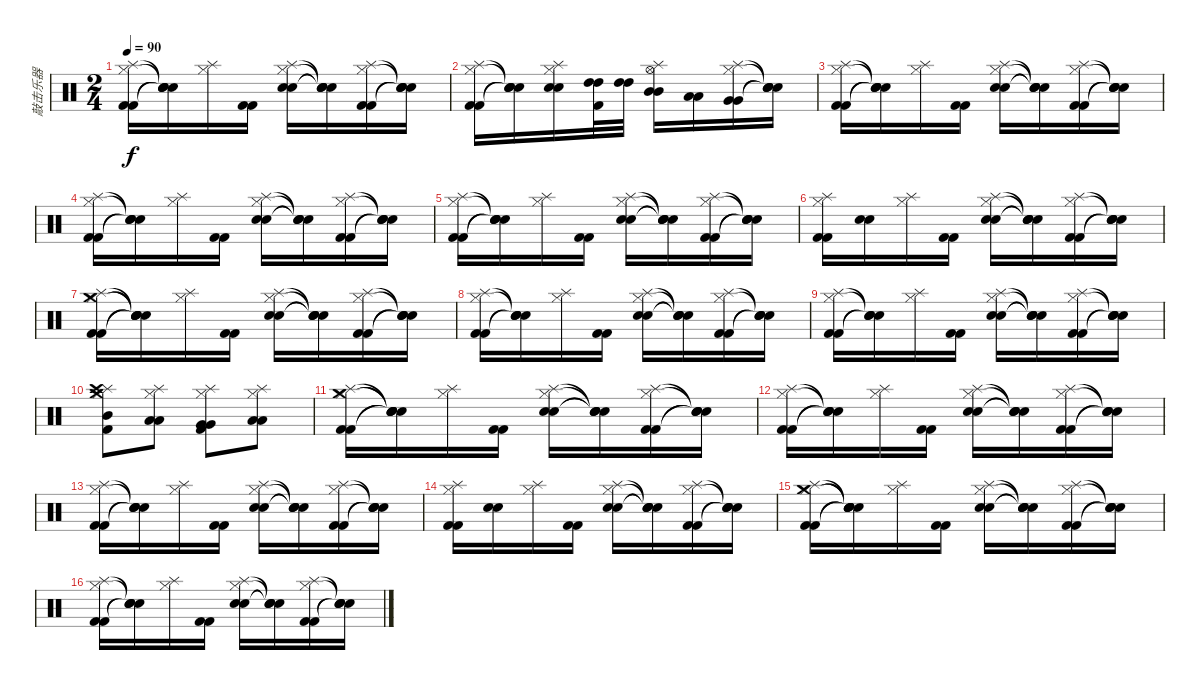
\track ("敲击乐器" "敲击乐器") {instrument percussion}
\staff {score}
\articulation defaults
\ts (2 4)
\tempo 90
\clef neutral
\ks c
("Hi-Hat (closed)" "Splash (hit)" "Kick (hit) 2" "Kick (hit) 2").16{dy f} ("Snare (hit)"{t} "Snare (hit)"{t} "Snare (hit)"{t} "Snare (hit)"{t}).16 ("Hi-Hat (closed)" "Splash (hit)").16 ("Kick (hit) 2" "Kick (hit) 2").16 ("Hi-Hat (closed)" "Splash (hit)" "Electric Snare (hit)" "Electric Snare (hit)").16 ("Snare (hit)"{t} "Snare (hit)"{t} "Snare (hit)"{t} "Snare (hit)"{t}).16 ("Hi-Hat (closed)" "Splash (hit)" "Kick (hit) 2" "Kick (hit) 2").16 ("Snare (hit)"{t} "Snare (hit)"{t} "Snare (hit)"{t} "Snare (hit)"{t}).16 |
("Hi-Hat (closed)" "Splash (hit)" "Kick (hit) 2" "Kick (hit) 2").16 ("Snare (hit)"{t} "Snare (hit)"{t} "Snare (hit)"{t} "Snare (hit)"{t}).16 ("Hi-Hat (closed)" "Splash (hit)" "Electric Snare (hit)" "Electric Snare (hit)").16 ("High Tom (hit)" "High Tom (hit)" "Kick (hit) 2").32 ("High Tom (hit)" "High Tom (hit)").32 ("Hi-Hat (open)" "Splash (hit)" "Mid Tom (hit)" "Mid Tom (hit)").16 ("Low Tom (hit)" "Low Tom (hit)").16 ("Hi-Hat (closed)" "Splash (hit)" "Very Low Tom (hit)" "Very Low Tom (hit)").16 ("Snare (hit)"{t} "Snare (hit)"{t} "Snare (hit)"{t} "Snare (hit)"{t}).16 |
("Hi-Hat (closed)" "Splash (hit)" "Kick (hit) 2" "Kick (hit) 2").16 ("Snare (hit)"{t} "Snare (hit)"{t} "Snare (hit)"{t} "Snare (hit)"{t}).16 ("Hi-Hat (closed)" "Splash (hit)").16 ("Kick (hit) 2" "Kick (hit) 2").16 ("Hi-Hat (closed)" "Splash (hit)" "Electric Snare (hit)" "Electric Snare (hit)").16 ("Snare (hit)"{t} "Snare (hit)"{t} "Snare (hit)"{t} "Snare (hit)"{t}).16 ("Hi-Hat (closed)" "Splash (hit)" "Kick (hit) 2" "Kick (hit) 2").16 ("Snare (hit)"{t} "Snare (hit)"{t} "Snare (hit)"{t} "Snare (hit)"{t}).16 |
("Hi-Hat (closed)" "Splash (hit)" "Kick (hit) 2" "Kick (hit) 2").16 ("Snare (hit)"{t} "Snare (hit)"{t} "Snare (hit)"{t} "Snare (hit)"{t}).16 ("Hi-Hat (closed)" "Splash (hit)").16 ("Kick (hit) 2" "Kick (hit) 2").16 ("Hi-Hat (closed)" "Splash (hit)" "Electric Snare (hit)" "Electric Snare (hit)").16 ("Snare (hit)"{t} "Snare (hit)"{t} "Snare (hit)"{t} "Snare (hit)"{t}).16 ("Hi-Hat (closed)" "Splash (hit)" "Kick (hit) 2" "Kick (hit) 2").16 ("Snare (hit)"{t} "Snare (hit)"{t} "Snare (hit)"{t} "Snare (hit)"{t}).16 |
("Hi-Hat (closed)" "Splash (hit)" "Kick (hit) 2" "Kick (hit) 2").16 ("Snare (hit)"{t} "Snare (hit)"{t} "Snare (hit)"{t} "Snare (hit)"{t}).16 ("Hi-Hat (closed)" "Splash (hit)").16 ("Kick (hit) 2" "Kick (hit) 2").16 ("Hi-Hat (closed)" "Splash (hit)" "Electric Snare (hit)" "Electric Snare (hit)").16 ("Snare (hit)"{t} "Snare (hit)"{t} "Snare (hit)"{t} "Snare (hit)"{t}).16 ("Hi-Hat (closed)" "Splash (hit)" "Kick (hit) 2" "Kick (hit) 2").16 ("Snare (hit)"{t} "Snare (hit)"{t} "Snare (hit)"{t} "Snare (hit)"{t}).16 |
("Hi-Hat (closed)" "Splash (hit)" "Kick (hit) 2" "Kick (hit) 2").16 ("Electric Snare (hit)" "Electric Snare (hit)").16 ("Hi-Hat (closed)" "Splash (hit)").16 ("Kick (hit) 2" "Kick (hit) 2").16 ("Hi-Hat (closed)" "Splash (hit)" "Electric Snare (hit)" "Electric Snare (hit)").16 ("Snare (hit)"{t} "Snare (hit)"{t} "Snare (hit)"{t} "Snare (hit)"{t}).16 ("Hi-Hat (closed)" "Splash (hit)" "Kick (hit) 2" "Kick (hit) 2").16 ("Snare (hit)"{t} "Snare (hit)"{t} "Snare (hit)"{t} "Snare (hit)"{t}).16 |
("Hi-Hat (closed)" "Splash (hit)" "Crash medium (hit)" "Kick (hit) 2" "Kick (hit) 2").16 ("Snare (hit)"{t} "Snare (hit)"{t} "Snare (hit)"{t} "Snare (hit)"{t} "Snare (hit)"{t}).16 ("Hi-Hat (closed)" "Splash (hit)").16 ("Kick (hit) 2" "Kick (hit) 2").16 ("Hi-Hat (closed)" "Splash (hit)" "Electric Snare (hit)" "Electric Snare (hit)").16 ("Snare (hit)"{t} "Snare (hit)"{t} "Snare (hit)"{t} "Snare (hit)"{t}).16 ("Hi-Hat (closed)" "Splash (hit)" "Kick (hit) 2" "Kick (hit) 2").16 ("Snare (hit)"{t} "Snare (hit)"{t} "Snare (hit)"{t} "Snare (hit)"{t}).16 |
("Hi-Hat (closed)" "Splash (hit)" "Kick (hit) 2" "Kick (hit) 2").16 ("Snare (hit)"{t} "Snare (hit)"{t} "Snare (hit)"{t} "Snare (hit)"{t}).16 ("Hi-Hat (closed)" "Splash (hit)").16 ("Kick (hit) 2" "Kick (hit) 2").16 ("Hi-Hat (closed)" "Splash (hit)" "Electric Snare (hit)" "Electric Snare (hit)").16 ("Snare (hit)"{t} "Snare (hit)"{t} "Snare (hit)"{t} "Snare (hit)"{t}).16 ("Hi-Hat (closed)" "Splash (hit)" "Kick (hit) 2" "Kick (hit) 2").16 ("Snare (hit)"{t} "Snare (hit)"{t} "Snare (hit)"{t} "Snare (hit)"{t}).16 |
("Hi-Hat (closed)" "Splash (hit)" "Kick (hit) 2" "Kick (hit) 2").16 ("Snare (hit)"{t} "Snare (hit)"{t} "Snare (hit)"{t} "Snare (hit)"{t}).16 ("Hi-Hat (closed)" "Splash (hit)").16 ("Kick (hit) 2" "Kick (hit) 2").16 ("Hi-Hat (closed)" "Splash (hit)" "Electric Snare (hit)" "Electric Snare (hit)").16 ("Snare (hit)"{t} "Snare (hit)"{t} "Snare (hit)"{t} "Snare (hit)"{t}).16 ("Hi-Hat (closed)" "Splash (hit)" "Kick (hit) 2" "Kick (hit) 2").16 ("Snare (hit)"{t} "Snare (hit)"{t} "Snare (hit)"{t} "Snare (hit)"{t}).16 |
("Hi-Hat (closed)" "Splash (hit)" "Crash medium (hit)" "Crash high (hit)" "Mid Tom (hit)" "Kick (hit) 2").8 ("Hi-Hat (closed)" "Splash (hit)" "Low Tom (hit)" "Low Tom (hit)").8 ("Hi-Hat (closed)" "Splash (hit)" "Very Low Tom (hit)" "Very Low Tom (hit)" "Kick (hit) 2").8 ("Hi-Hat (closed)" "Splash (hit)" "Low Floor Tom (hit)" "Low Floor Tom (hit)").8 |
("Hi-Hat (closed)" "Splash (hit)" "Crash medium (hit)" "Kick (hit) 2" "Kick (hit) 2").16 ("Snare (hit)"{t} "Snare (hit)"{t} "Snare (hit)"{t} "Snare (hit)"{t} "Snare (hit)"{t}).16 ("Hi-Hat (closed)" "Splash (hit)").16 ("Kick (hit) 2" "Kick (hit) 2").16 ("Hi-Hat (closed)" "Splash (hit)" "Electric Snare (hit)" "Electric Snare (hit)").16 ("Snare (hit)"{t} "Snare (hit)"{t} "Snare (hit)"{t} "Snare (hit)"{t}).16 ("Hi-Hat (closed)" "Splash (hit)" "Kick (hit) 2" "Kick (hit) 2").16 ("Snare (hit)"{t} "Snare (hit)"{t} "Snare (hit)"{t} "Snare (hit)"{t}).16 |
("Hi-Hat (closed)" "Splash (hit)" "Kick (hit) 2" "Kick (hit) 2").16 ("Snare (hit)"{t} "Snare (hit)"{t} "Snare (hit)"{t} "Snare (hit)"{t}).16 ("Hi-Hat (closed)" "Splash (hit)").16 ("Kick (hit) 2" "Kick (hit) 2").16 ("Hi-Hat (closed)" "Splash (hit)" "Electric Snare (hit)" "Electric Snare (hit)").16 ("Snare (hit)"{t} "Snare (hit)"{t} "Snare (hit)"{t} "Snare (hit)"{t}).16 ("Hi-Hat (closed)" "Splash (hit)" "Kick (hit) 2" "Kick (hit) 2").16 ("Snare (hit)"{t} "Snare (hit)"{t} "Snare (hit)"{t} "Snare (hit)"{t}).16 |
("Hi-Hat (closed)" "Splash (hit)" "Kick (hit) 2" "Kick (hit) 2").16 ("Snare (hit)"{t} "Snare (hit)"{t} "Snare (hit)"{t} "Snare (hit)"{t}).16 ("Hi-Hat (closed)" "Splash (hit)").16 ("Kick (hit) 2" "Kick (hit) 2").16 ("Hi-Hat (closed)" "Splash (hit)" "Electric Snare (hit)" "Electric Snare (hit)").16 ("Snare (hit)"{t} "Snare (hit)"{t} "Snare (hit)"{t} "Snare (hit)"{t}).16 ("Hi-Hat (closed)" "Splash (hit)" "Kick (hit) 2" "Kick (hit) 2").16 ("Snare (hit)"{t} "Snare (hit)"{t} "Snare (hit)"{t} "Snare (hit)"{t}).16 |
("Hi-Hat (closed)" "Splash (hit)" "Kick (hit) 2" "Kick (hit) 2").16 ("Electric Snare (hit)" "Electric Snare (hit)").16 ("Hi-Hat (closed)" "Splash (hit)").16 ("Kick (hit) 2" "Kick (hit) 2").16 ("Hi-Hat (closed)" "Splash (hit)" "Electric Snare (hit)" "Electric Snare (hit)").16 ("Snare (hit)"{t} "Snare (hit)"{t} "Snare (hit)"{t} "Snare (hit)"{t}).16 ("Hi-Hat (closed)" "Splash (hit)" "Kick (hit) 2" "Kick (hit) 2").16 ("Snare (hit)"{t} "Snare (hit)"{t} "Snare (hit)"{t} "Snare (hit)"{t}).16 |
("Hi-Hat (closed)" "Splash (hit)" "Crash medium (hit)" "Kick (hit) 2" "Kick (hit) 2").16 ("Snare (hit)"{t} "Snare (hit)"{t} "Snare (hit)"{t} "Snare (hit)"{t} "Snare (hit)"{t}).16 ("Hi-Hat (closed)" "Splash (hit)").16 ("Kick (hit) 2" "Kick (hit) 2").16 ("Hi-Hat (closed)" "Splash (hit)" "Electric Snare (hit)" "Electric Snare (hit)").16 ("Snare (hit)"{t} "Snare (hit)"{t} "Snare (hit)"{t} "Snare (hit)"{t}).16 ("Hi-Hat (closed)" "Splash (hit)" "Kick (hit) 2" "Kick (hit) 2").16 ("Snare (hit)"{t} "Snare (hit)"{t} "Snare (hit)"{t} "Snare (hit)"{t}).16 |
("Hi-Hat (closed)" "Splash (hit)" "Kick (hit) 2" "Kick (hit) 2").16 ("Snare (hit)"{t} "Snare (hit)"{t} "Snare (hit)"{t} "Snare (hit)"{t}).16 ("Hi-Hat (closed)" "Splash (hit)").16 ("Kick (hit) 2" "Kick (hit) 2").16 ("Hi-Hat (closed)" "Splash (hit)" "Electric Snare (hit)" "Electric Snare (hit)").16 ("Snare (hit)"{t} "Snare (hit)"{t} "Snare (hit)"{t} "Snare (hit)"{t}).16 ("Hi-Hat (closed)" "Splash (hit)" "Kick (hit) 2" "Kick (hit) 2").16 ("Snare (hit)"{t} "Snare (hit)"{t} "Snare (hit)"{t} "Snare (hit)"{t}).16
